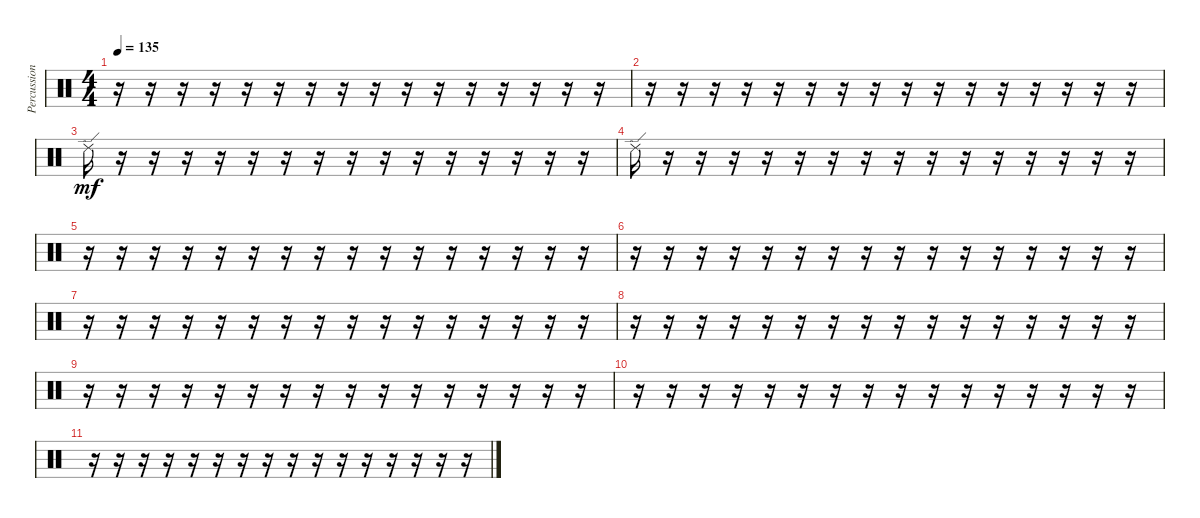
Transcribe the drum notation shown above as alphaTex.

\track ("Percussion (Orchestral Kit)" "Percussion") {instrument percussion}
\staff {score}
\articulation defaults
\ts (4 4)
\tempo 135
\clef neutral
\ks c
r.16{dy mf} r.16 r.16 r.16 r.16 r.16 r.16 r.16 r.16 r.16 r.16 r.16 r.16 r.16 r.16 r.16 |
r.16 r.16 r.16 r.16 r.16 r.16 r.16 r.16 r.16 r.16 r.16 r.16 r.16 r.16 r.16 r.16 |
"Ride (edge) 2".16 r.16 r.16 r.16 r.16 r.16 r.16 r.16 r.16 r.16 r.16 r.16 r.16 r.16 r.16 r.16 |
"Ride (edge) 2".16 r.16 r.16 r.16 r.16 r.16 r.16 r.16 r.16 r.16 r.16 r.16 r.16 r.16 r.16 r.16 |
r.16 r.16 r.16 r.16 r.16 r.16 r.16 r.16 r.16 r.16 r.16 r.16 r.16 r.16 r.16 r.16 |
r.16 r.16 r.16 r.16 r.16 r.16 r.16 r.16 r.16 r.16 r.16 r.16 r.16 r.16 r.16 r.16 |
r.16 r.16 r.16 r.16 r.16 r.16 r.16 r.16 r.16 r.16 r.16 r.16 r.16 r.16 r.16 r.16 |
r.16 r.16 r.16 r.16 r.16 r.16 r.16 r.16 r.16 r.16 r.16 r.16 r.16 r.16 r.16 r.16 |
r.16 r.16 r.16 r.16 r.16 r.16 r.16 r.16 r.16 r.16 r.16 r.16 r.16 r.16 r.16 r.16 |
r.16 r.16 r.16 r.16 r.16 r.16 r.16 r.16 r.16 r.16 r.16 r.16 r.16 r.16 r.16 r.16 |
r.16 r.16 r.16 r.16 r.16 r.16 r.16 r.16 r.16 r.16 r.16 r.16 r.16 r.16 r.16 r.16
